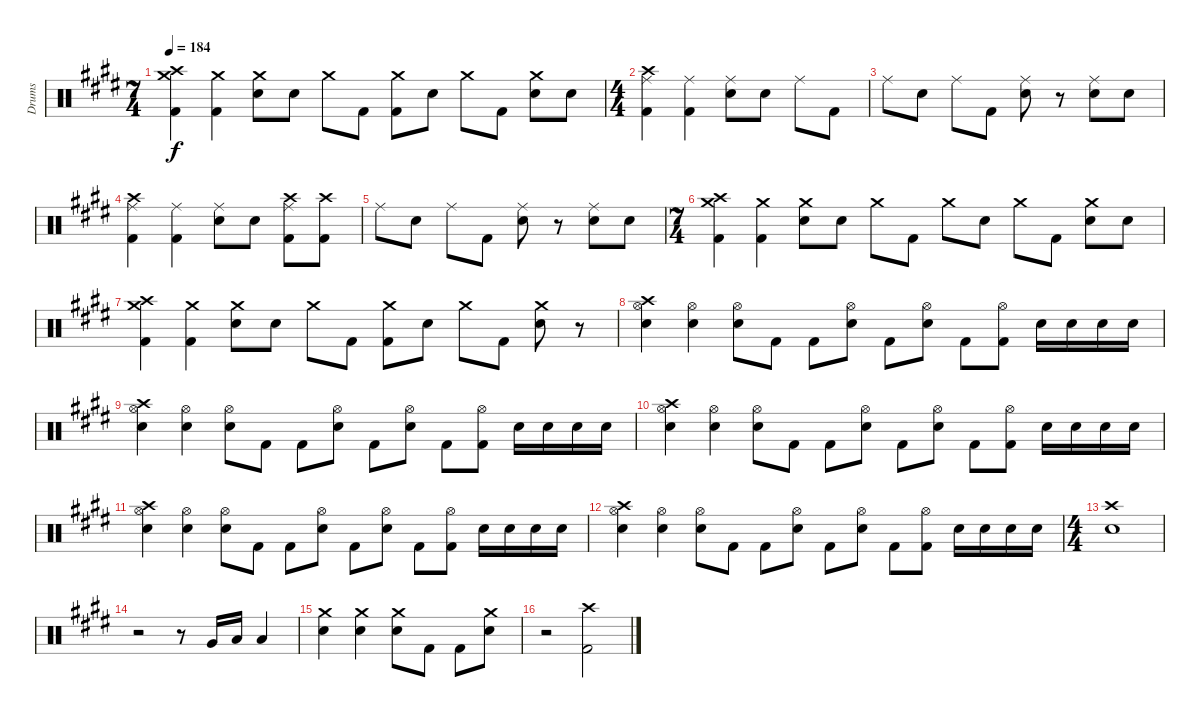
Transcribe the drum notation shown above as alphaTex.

\track ("Drums" "Drums") {instrument percussion}
\staff {score}
\articulation defaults
\ts (7 4)
\tempo 184
\clef neutral
\ks c#minor
("Crash medium (hit)" "Crash high (hit)" "Kick (hit) 2").4{dy f} ("Crash medium (hit)" "Kick (hit) 2").4 ("Crash medium (hit)" "Snare (hit) 2").8 "Snare (hit) 2".8 "Crash medium (hit)".8 "Kick (hit) 2".8 ("Crash medium (hit)" "Kick (hit) 2").8 "Snare (hit) 2".8 "Crash medium (hit)".8 "Kick (hit) 2".8 ("Crash medium (hit)" "Snare (hit) 2").8 "Snare (hit) 2".8 |
\ts (4 4)
("Ride (middle)" "Crash high (hit)" "Kick (hit) 2").4 ("Ride (middle)" "Kick (hit) 2").4 ("Ride (middle)" "Snare (hit) 2").8 "Snare (hit) 2".8 "Ride (middle)".8 "Kick (hit) 2".8 |
"Ride (middle)".8 "Snare (hit) 2".8 "Ride (middle)".8 "Kick (hit) 2".8 ("Ride (middle)" "Snare (hit) 2").8 r.8 ("Ride (middle)" "Snare (hit) 2").8 "Snare (hit) 2".8 |
("Ride (middle)" "Crash high (hit)" "Kick (hit) 2").4 ("Ride (middle)" "Kick (hit) 2").4 ("Ride (middle)" "Snare (hit) 2").8 "Snare (hit) 2".8 ("Ride (middle)" "Crash high (hit)" "Kick (hit) 2").8 ("Crash high (hit)" "Kick (hit) 2").8 |
"Ride (middle)".8 "Snare (hit) 2".8 "Ride (middle)".8 "Kick (hit) 2".8 ("Ride (middle)" "Snare (hit) 2").8 r.8 ("Ride (middle)" "Snare (hit) 2").8 "Snare (hit) 2".8 |
\ts (7 4)
("Crash medium (hit)" "Crash high (hit)" "Kick (hit) 2").4 ("Crash medium (hit)" "Kick (hit) 2").4 ("Crash medium (hit)" "Snare (hit) 2").8 "Snare (hit) 2".8 "Crash medium (hit)".8 "Kick (hit) 2".8 "Crash medium (hit)".8 "Snare (hit) 2".8 "Crash medium (hit)".8 "Kick (hit) 2".8 ("Crash medium (hit)" "Snare (hit) 2").8 "Snare (hit) 2".8 |
("Crash medium (hit)" "Crash high (hit)" "Kick (hit) 2").4 ("Crash medium (hit)" "Kick (hit) 2").4 ("Crash medium (hit)" "Snare (hit) 2").8 "Snare (hit) 2".8 "Crash medium (hit)".8 "Kick (hit) 2".8 ("Crash medium (hit)" "Kick (hit) 2").8 "Snare (hit) 2".8 "Crash medium (hit)".8 "Kick (hit) 2".8 ("Crash medium (hit)" "Snare (hit) 2").8 r.8 |
("Crash high (hit)" "Hi-Hat (open)" "Snare (hit) 2").4 ("Hi-Hat (open)" "Snare (hit) 2").4 ("Hi-Hat (open)" "Snare (hit) 2").8 "Kick (hit) 2".8 "Kick (hit) 2".8 ("Hi-Hat (open)" "Snare (hit) 2").8 "Kick (hit) 2".8 ("Hi-Hat (open)" "Snare (hit) 2").8 "Kick (hit) 2".8 ("Hi-Hat (open)" "Kick (hit) 2").8 "Snare (hit) 2".16 "Snare (hit) 2".16 "Snare (hit) 2".16 "Snare (hit) 2".16 |
("Crash high (hit)" "Hi-Hat (open)" "Snare (hit) 2").4 ("Hi-Hat (open)" "Snare (hit) 2").4 ("Hi-Hat (open)" "Snare (hit) 2").8 "Kick (hit) 2".8 "Kick (hit) 2".8 ("Hi-Hat (open)" "Snare (hit) 2").8 "Kick (hit) 2".8 ("Hi-Hat (open)" "Snare (hit) 2").8 "Kick (hit) 2".8 ("Hi-Hat (open)" "Kick (hit) 2").8 "Snare (hit) 2".16 "Snare (hit) 2".16 "Snare (hit) 2".16 "Snare (hit) 2".16 |
("Crash high (hit)" "Hi-Hat (open)" "Snare (hit) 2").4 ("Hi-Hat (open)" "Snare (hit) 2").4 ("Hi-Hat (open)" "Snare (hit) 2").8 "Kick (hit) 2".8 "Kick (hit) 2".8 ("Hi-Hat (open)" "Snare (hit) 2").8 "Kick (hit) 2".8 ("Hi-Hat (open)" "Snare (hit) 2").8 "Kick (hit) 2".8 ("Hi-Hat (open)" "Kick (hit) 2").8 "Snare (hit) 2".16 "Snare (hit) 2".16 "Snare (hit) 2".16 "Snare (hit) 2".16 |
("Crash high (hit)" "Hi-Hat (open)" "Snare (hit) 2").4 ("Hi-Hat (open)" "Snare (hit) 2").4 ("Hi-Hat (open)" "Snare (hit) 2").8 "Kick (hit) 2".8 "Kick (hit) 2".8 ("Hi-Hat (open)" "Snare (hit) 2").8 "Kick (hit) 2".8 ("Hi-Hat (open)" "Snare (hit) 2").8 "Kick (hit) 2".8 ("Hi-Hat (open)" "Kick (hit) 2").8 "Snare (hit) 2".16 "Snare (hit) 2".16 "Snare (hit) 2".16 "Snare (hit) 2".16 |
("Crash high (hit)" "Hi-Hat (open)" "Snare (hit) 2").4 ("Hi-Hat (open)" "Snare (hit) 2").4 ("Hi-Hat (open)" "Snare (hit) 2").8 "Kick (hit) 2".8 "Kick (hit) 2".8 ("Hi-Hat (open)" "Snare (hit) 2").8 "Kick (hit) 2".8 ("Hi-Hat (open)" "Snare (hit) 2").8 "Kick (hit) 2".8 ("Hi-Hat (open)" "Kick (hit) 2").8 "Snare (hit) 2".16 "Snare (hit) 2".16 "Snare (hit) 2".16 "Snare (hit) 2".16 |
\ts (4 4)
("Crash high (hit)" "Snare (hit) 2").1 |
r.2 r.8 "Very Low Tom (hit)".16 "Low Floor Tom (hit)".16 "Low Floor Tom (hit)".4 |
("Crash medium (hit)" "Snare (hit) 2").4 ("Crash medium (hit)" "Snare (hit) 2").4 ("Crash medium (hit)" "Snare (hit) 2").8 "Kick (hit) 2".8 "Kick (hit) 2".8 ("Crash medium (hit)" "Snare (hit) 2").8 |
r.2 ("Crash high (hit)" "Kick (hit) 2").2
